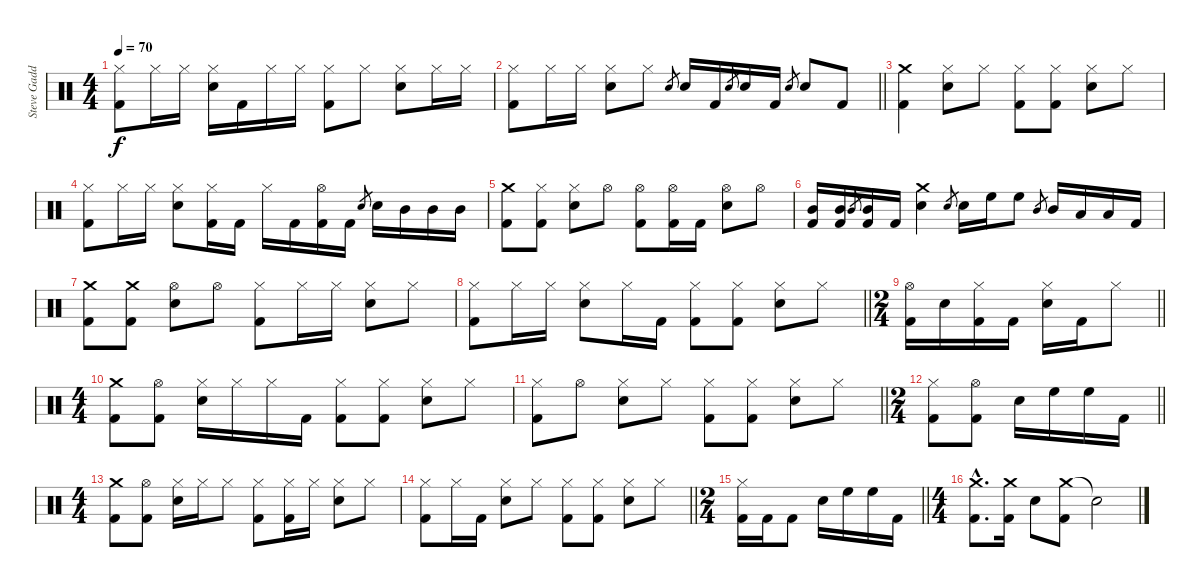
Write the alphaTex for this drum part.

\track ("Steve Gadd Drums" "Steve Gadd") {instrument percussion}
\staff {score}
\articulation defaults
\ts (4 4)
\tempo 70
\clef neutral
\ks c
("Hi-Hat (closed)" "Kick (hit) 2").8{dy f} "Hi-Hat (closed)".16 "Hi-Hat (closed)".16 ("Hi-Hat (closed)" "Snare (hit) 2").16 "Kick (hit) 2".16 "Hi-Hat (closed)".16 "Hi-Hat (closed)".16 ("Hi-Hat (closed)" "Kick (hit) 2").8 "Hi-Hat (closed)".8 ("Hi-Hat (closed)" "Snare (hit) 2").8 "Hi-Hat (closed)".16 "Hi-Hat (closed)".16 |
\barLineRight lightlight
("Hi-Hat (closed)" "Kick (hit) 2").8 "Hi-Hat (closed)".16 "Hi-Hat (closed)".16 ("Hi-Hat (closed)" "Snare (hit) 2").8 "Hi-Hat (closed)".8 "Snare (hit) 2".8{gr} "Snare (hit) 2".16 "Kick (hit) 2".16 "Snare (hit) 2".8{gr} "Snare (hit) 2".16 "Kick (hit) 2".16 "Snare (hit) 2".8{gr} "Snare (hit) 2".8 "Kick (hit) 2".8 |
("Crash medium (hit)" "Kick (hit) 2").4 ("Hi-Hat (closed)" "Snare (hit) 2").8 "Hi-Hat (closed)".8 ("Hi-Hat (closed)" "Kick (hit) 2").8 ("Hi-Hat (closed)" "Kick (hit) 2").8 ("Hi-Hat (closed)" "Snare (hit) 2").8 "Hi-Hat (closed)".8 |
("Hi-Hat (closed)" "Kick (hit) 2").8 "Hi-Hat (closed)".16 "Hi-Hat (closed)".16 ("Hi-Hat (closed)" "Snare (hit) 2").8 ("Hi-Hat (closed)" "Kick (hit) 2").16 "Kick (hit) 2".16 "Hi-Hat (closed)".16 "Kick (hit) 2".16 ("Hi-Hat (open)" "Kick (hit) 2").16 "Kick (hit) 2".16 "Snare (hit) 2".8{gr} "Snare (hit) 2".16 "Mid Tom (hit)".16 "Mid Tom (hit)".16 "Mid Tom (hit)".16 |
("Crash medium (hit)" "Kick (hit) 2").8 ("Hi-Hat (closed)" "Kick (hit) 2").8 ("Hi-Hat (closed)" "Snare (hit) 2").8 "Hi-Hat (open)".8 ("Hi-Hat (open)" "Kick (hit) 2").8 ("Hi-Hat (open)" "Kick (hit) 2").16 "Kick (hit) 2".16 ("Hi-Hat (open)" "Snare (hit) 2").8 "Hi-Hat (open)".8 |
("Mid Tom (hit)" "Kick (hit) 2").16 ("Mid Tom (hit)" "Kick (hit) 2").16 "Mid Tom (hit)".8{gr} ("Mid Tom (hit)" "Kick (hit) 2").16 "Kick (hit) 2".16 ("Crash medium (hit)" "Snare (hit) 2").4 "Snare (hit) 2".8{gr} "Snare (hit) 2".16 "High Floor Tom (hit)".16 "High Floor Tom (hit)".8 "Mid Tom (hit)".8{gr} "Mid Tom (hit)".16 "Low Tom (hit)".16 "Low Tom (hit)".16 "Kick (hit) 2".16 |
("Crash medium (hit)" "Kick (hit) 2").8 ("Crash medium (hit)" "Kick (hit) 2").8 ("Hi-Hat (open)" "Snare (hit) 2").8 "Hi-Hat (open)".8 ("Hi-Hat (closed)" "Kick (hit) 2").8 "Hi-Hat (closed)".16 "Hi-Hat (closed)".16 ("Hi-Hat (closed)" "Snare (hit) 2").8 "Hi-Hat (closed)".8 |
\barLineRight lightlight
("Hi-Hat (closed)" "Kick (hit) 2").8 "Hi-Hat (closed)".16 "Hi-Hat (closed)".16 ("Hi-Hat (closed)" "Snare (hit) 2").8 "Hi-Hat (closed)".16 "Kick (hit) 2".16 ("Hi-Hat (closed)" "Kick (hit) 2").8 ("Hi-Hat (closed)" "Kick (hit) 2").8 ("Hi-Hat (closed)" "Snare (hit) 2").8 "Hi-Hat (closed)".8 |
\ts (2 4)
\barLineRight lightlight
("Hi-Hat (open)" "Kick (hit) 2").16 "Snare (hit) 2".16 ("Hi-Hat (closed)" "Kick (hit) 2").16 "Kick (hit) 2".16 ("Hi-Hat (closed)" "Snare (hit) 2").16 "Kick (hit) 2".16 "Hi-Hat (closed)".8 |
\ts (4 4)
("Crash medium (hit)" "Kick (hit) 2").8 ("Hi-Hat (open)" "Kick (hit) 2").8 ("Hi-Hat (closed)" "Snare (hit) 2").16 "Hi-Hat (closed)".16 "Hi-Hat (closed)".16 "Kick (hit) 2".16 ("Hi-Hat (closed)" "Kick (hit) 2").8 ("Hi-Hat (closed)" "Kick (hit) 2").8 ("Hi-Hat (closed)" "Snare (hit) 2").8 "Hi-Hat (closed)".8 |
\barLineRight lightlight
("Hi-Hat (closed)" "Kick (hit) 2").8 "Hi-Hat (open)".8 ("Hi-Hat (closed)" "Snare (hit) 2").8 "Hi-Hat (closed)".8 ("Hi-Hat (closed)" "Kick (hit) 2").8 ("Hi-Hat (closed)" "Kick (hit) 2").8 ("Hi-Hat (closed)" "Snare (hit) 2").8 "Hi-Hat (closed)".8 |
\ts (2 4)
\barLineRight lightlight
("Hi-Hat (closed)" "Kick (hit) 2").8 ("Hi-Hat (open)" "Kick (hit) 2").8 "Snare (hit) 2".16 "High Floor Tom (hit)".16 "High Floor Tom (hit)".16 "Kick (hit) 2".16 |
\ts (4 4)
("Crash medium (hit)" "Kick (hit) 2").8 ("Hi-Hat (open)" "Kick (hit) 2").8 ("Hi-Hat (closed)" "Snare (hit) 2").16 "Hi-Hat (closed)".16 "Hi-Hat (closed)".8 ("Hi-Hat (closed)" "Kick (hit) 2").8 ("Hi-Hat (closed)" "Kick (hit) 2").16 "Hi-Hat (closed)".16 ("Hi-Hat (closed)" "Snare (hit) 2").8 "Hi-Hat (closed)".8 |
\barLineRight lightlight
("Hi-Hat (closed)" "Kick (hit) 2").8 "Hi-Hat (closed)".16 "Kick (hit) 2".16 ("Hi-Hat (closed)" "Snare (hit) 2").8 "Hi-Hat (closed)".8 ("Hi-Hat (closed)" "Kick (hit) 2").8 ("Hi-Hat (closed)" "Kick (hit) 2").8 ("Hi-Hat (closed)" "Snare (hit) 2").8 "Hi-Hat (closed)".8 |
\ts (2 4)
\barLineRight lightlight
("Hi-Hat (closed)" "Kick (hit) 2").16 "Kick (hit) 2".16 "Kick (hit) 2".8 "Snare (hit) 2".16 "High Floor Tom (hit)".16 "High Floor Tom (hit)".16 "Kick (hit) 2".16 |
\ts (4 4)
("Crash medium (hit)"{hac} "Kick (hit) 2"{hac}).8{d} ("Crash medium (hit)" "Kick (hit) 2").16 "Snare (hit) 2".8 ("Crash medium (hit)" "Kick (hit) 2").8 "Snare (hit)"{t}.2
